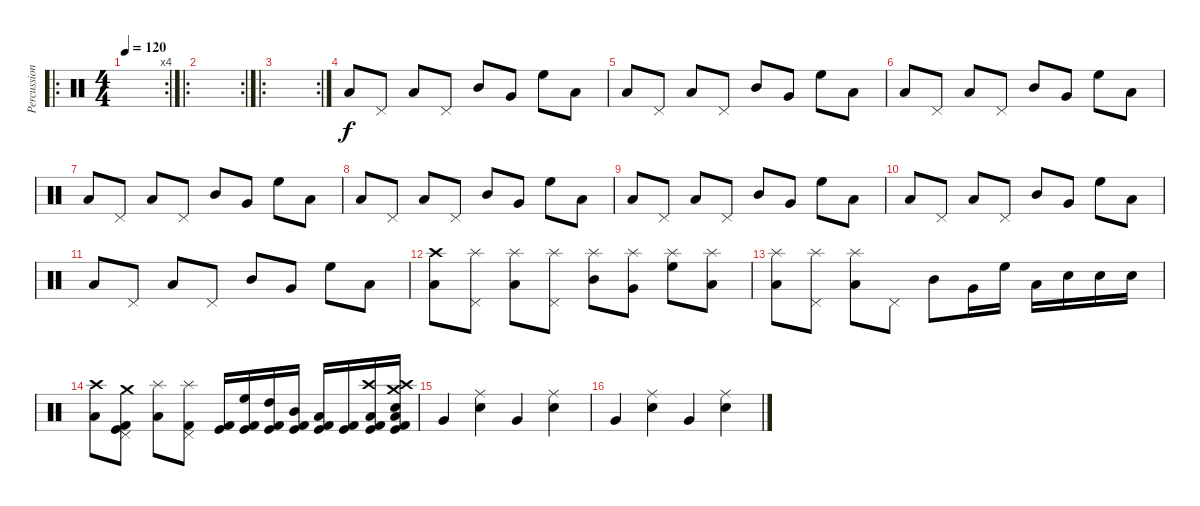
\track ("Percussion" "Percussion") {instrument percussion}
\staff {score}
\articulation defaults
\ro
\rc 4
\ts (4 4)
\tempo 120
\clef neutral
\ks c
|
\ro
\rc 2
|
\ro
\rc 2
|
"Low Floor Tom (hit)".8 "Pedal Hi-Hat (hit)".8 "Low Floor Tom (hit)".8 "Pedal Hi-Hat (hit)".8 "Mid Tom (hit)".8 "Very Low Tom (hit)".8 "High Floor Tom (hit)".8 "Low Floor Tom (hit)".8 |
"Low Floor Tom (hit)".8 "Pedal Hi-Hat (hit)".8 "Low Floor Tom (hit)".8 "Pedal Hi-Hat (hit)".8 "Mid Tom (hit)".8 "Very Low Tom (hit)".8 "High Floor Tom (hit)".8 "Low Floor Tom (hit)".8 |
"Low Floor Tom (hit)".8 "Pedal Hi-Hat (hit)".8 "Low Floor Tom (hit)".8 "Pedal Hi-Hat (hit)".8 "Mid Tom (hit)".8 "Very Low Tom (hit)".8 "High Floor Tom (hit)".8 "Low Floor Tom (hit)".8 |
"Low Floor Tom (hit)".8 "Pedal Hi-Hat (hit)".8 "Low Floor Tom (hit)".8 "Pedal Hi-Hat (hit)".8 "Mid Tom (hit)".8 "Very Low Tom (hit)".8 "High Floor Tom (hit)".8 "Low Floor Tom (hit)".8 |
"Low Floor Tom (hit)".8 "Pedal Hi-Hat (hit)".8 "Low Floor Tom (hit)".8 "Pedal Hi-Hat (hit)".8 "Mid Tom (hit)".8 "Very Low Tom (hit)".8 "High Floor Tom (hit)".8 "Low Floor Tom (hit)".8 |
"Low Floor Tom (hit)".8 "Pedal Hi-Hat (hit)".8 "Low Floor Tom (hit)".8 "Pedal Hi-Hat (hit)".8 "Mid Tom (hit)".8 "Very Low Tom (hit)".8 "High Floor Tom (hit)".8 "Low Floor Tom (hit)".8 |
"Low Floor Tom (hit)".8 "Pedal Hi-Hat (hit)".8 "Low Floor Tom (hit)".8 "Pedal Hi-Hat (hit)".8 "Mid Tom (hit)".8 "Very Low Tom (hit)".8 "High Floor Tom (hit)".8 "Low Floor Tom (hit)".8 |
"Low Floor Tom (hit)".8 "Pedal Hi-Hat (hit)".8 "Low Floor Tom (hit)".8 "Pedal Hi-Hat (hit)".8 "Mid Tom (hit)".8 "Very Low Tom (hit)".8 "High Floor Tom (hit)".8 "Low Floor Tom (hit)".8 |
("Crash high (hit)" "Low Floor Tom (hit)").8 ("Splash (hit)" "Pedal Hi-Hat (hit)").8 ("Splash (hit)" "Low Floor Tom (hit)").8 ("Splash (hit)" "Pedal Hi-Hat (hit)").8 ("Splash (hit)" "Mid Tom (hit)").8 ("Splash (hit)" "Very Low Tom (hit)").8 ("Splash (hit)" "High Floor Tom (hit)").8 ("Splash (hit)" "Low Floor Tom (hit)").8 |
("Splash (hit)" "Low Floor Tom (hit)").8 ("Splash (hit)" "Pedal Hi-Hat (hit)").8 ("Splash (hit)" "Low Floor Tom (hit)").8 "Pedal Hi-Hat (hit)".8 "Mid Tom (hit)".8 "Very Low Tom (hit)".16 "High Floor Tom (hit)".16 "Low Floor Tom (hit)".16 "Electric Snare (hit)".16 "Electric Snare (hit)".16 "Electric Snare (hit)".16 |
("Crash high (hit)" "Low Floor Tom (hit)").8 ("Crash medium (hit)" "Pedal Hi-Hat (hit)" "Kick (hit)" "Kick (hit) 2").8 ("Splash (hit)" "Low Floor Tom (hit)").8 ("Splash (hit)" "Pedal Hi-Hat (hit)" "Kick (hit) 2").8 ("Kick (hit)" "Kick (hit) 2").16 ("High Floor Tom (hit)" "Kick (hit)" "Kick (hit) 2").16 ("High Tom (hit)" "Kick (hit)" "Kick (hit) 2").16 ("Mid Tom (hit)" "Kick (hit)" "Kick (hit) 2").16 ("Low Tom (hit)" "Kick (hit)" "Kick (hit) 2").16 ("Kick (hit)" "Kick (hit) 2").16 ("Crash high (hit)" "Low Floor Tom (hit)" "Kick (hit)" "Kick (hit) 2").16 ("Crash medium (hit)" "Crash high (hit)" "Electric Snare (hit)" "Low Floor Tom (hit)" "Kick (hit)" "Kick (hit) 2").16 |
"Very Low Tom (hit)".4 ("Ride (middle)" "Snare (hit) 2").4 "Very Low Tom (hit)".4 ("Ride (middle)" "Snare (hit) 2").4 |
"Very Low Tom (hit)".4 ("Ride (middle)" "Snare (hit) 2").4 "Very Low Tom (hit)".4 ("Ride (middle)" "Snare (hit) 2").4
